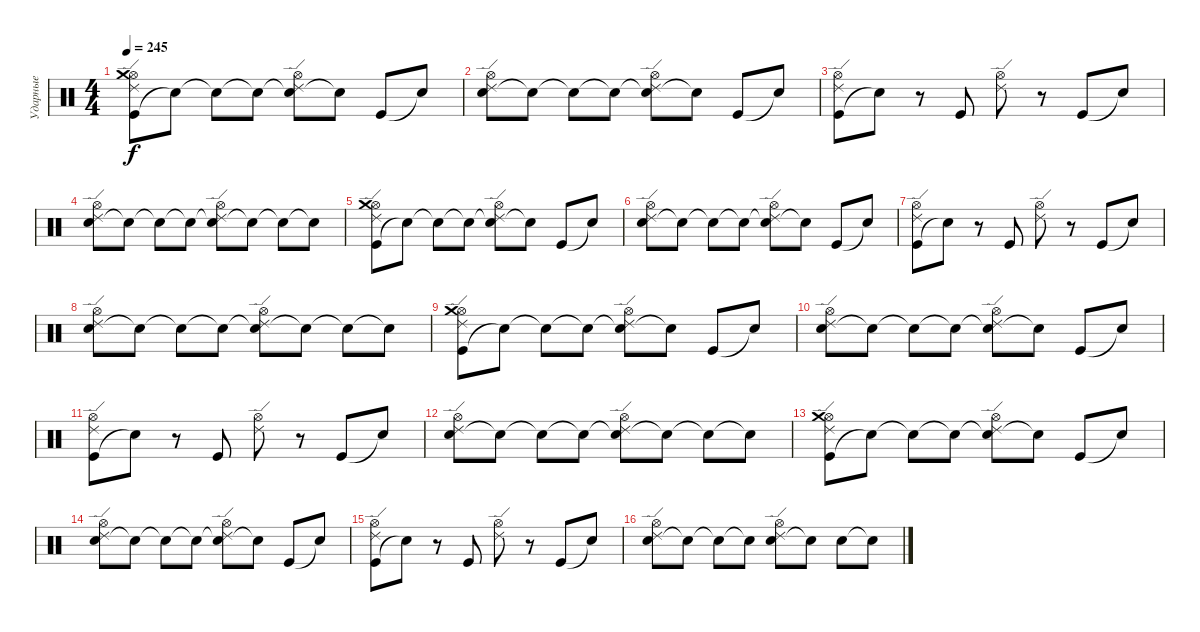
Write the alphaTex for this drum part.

\track ("Ударные" "Ударные") {instrument percussion}
\staff {score}
\articulation defaults
\ts (4 4)
\tempo 245
\clef neutral
\ks c
("Kick (hit)" "Ride (edge) 2" "Hi-Hat (open)" "Crash medium (hit)").8{dy f} "Snare (hit)"{t}.8 "Snare (hit)"{t}.8 "Snare (hit)"{t}.8 ("Snare (hit)"{t} "Ride (edge) 2" "Hi-Hat (open)").8 "Snare (hit)"{t}.8 "Kick (hit)".8 "Snare (hit)"{t}.8 |
("Electric Snare (hit)" "Ride (edge) 2" "Hi-Hat (open)").8 "Snare (hit)"{t}.8 "Snare (hit)"{t}.8 "Snare (hit)"{t}.8 ("Snare (hit)"{t} "Ride (edge) 2" "Hi-Hat (open)").8 "Snare (hit)"{t}.8 "Kick (hit)".8 "Snare (hit)"{t}.8 |
("Kick (hit)" "Ride (edge) 2" "Hi-Hat (open)").8 "Snare (hit)"{t}.8 r.8 "Kick (hit)".8 ("Ride (edge) 2" "Hi-Hat (open)").8 r.8 "Kick (hit)".8 "Snare (hit)"{t}.8 |
("Electric Snare (hit)" "Ride (edge) 2" "Hi-Hat (open)").8 "Snare (hit)"{t}.8 "Snare (hit)"{t}.8 "Snare (hit)"{t}.8 ("Snare (hit)"{t} "Ride (edge) 2" "Hi-Hat (open)").8 "Snare (hit)"{t}.8 "Snare (hit)"{t}.8 "Snare (hit)"{t}.8 |
("Kick (hit)" "Ride (edge) 2" "Hi-Hat (open)" "Crash medium (hit)").8 "Snare (hit)"{t}.8 "Snare (hit)"{t}.8 "Snare (hit)"{t}.8 ("Snare (hit)"{t} "Ride (edge) 2" "Hi-Hat (open)").8 "Snare (hit)"{t}.8 "Kick (hit)".8 "Snare (hit)"{t}.8 |
("Electric Snare (hit)" "Ride (edge) 2" "Hi-Hat (open)").8 "Snare (hit)"{t}.8 "Snare (hit)"{t}.8 "Snare (hit)"{t}.8 ("Snare (hit)"{t} "Ride (edge) 2" "Hi-Hat (open)").8 "Snare (hit)"{t}.8 "Kick (hit)".8 "Snare (hit)"{t}.8 |
("Kick (hit)" "Ride (edge) 2" "Hi-Hat (open)").8 "Snare (hit)"{t}.8 r.8 "Kick (hit)".8 ("Ride (edge) 2" "Hi-Hat (open)").8 r.8 "Kick (hit)".8 "Snare (hit)"{t}.8 |
("Electric Snare (hit)" "Ride (edge) 2" "Hi-Hat (open)").8 "Snare (hit)"{t}.8 "Snare (hit)"{t}.8 "Snare (hit)"{t}.8 ("Snare (hit)"{t} "Ride (edge) 2" "Hi-Hat (open)").8 "Snare (hit)"{t}.8 "Snare (hit)"{t}.8 "Snare (hit)"{t}.8 |
("Kick (hit)" "Ride (edge) 2" "Hi-Hat (open)" "Crash medium (hit)").8 "Snare (hit)"{t}.8 "Snare (hit)"{t}.8 "Snare (hit)"{t}.8 ("Snare (hit)"{t} "Ride (edge) 2" "Hi-Hat (open)").8 "Snare (hit)"{t}.8 "Kick (hit)".8 "Snare (hit)"{t}.8 |
("Electric Snare (hit)" "Ride (edge) 2" "Hi-Hat (open)").8 "Snare (hit)"{t}.8 "Snare (hit)"{t}.8 "Snare (hit)"{t}.8 ("Snare (hit)"{t} "Ride (edge) 2" "Hi-Hat (open)").8 "Snare (hit)"{t}.8 "Kick (hit)".8 "Snare (hit)"{t}.8 |
("Kick (hit)" "Ride (edge) 2" "Hi-Hat (open)").8 "Snare (hit)"{t}.8 r.8 "Kick (hit)".8 ("Ride (edge) 2" "Hi-Hat (open)").8 r.8 "Kick (hit)".8 "Snare (hit)"{t}.8 |
("Electric Snare (hit)" "Ride (edge) 2" "Hi-Hat (open)").8 "Snare (hit)"{t}.8 "Snare (hit)"{t}.8 "Snare (hit)"{t}.8 ("Snare (hit)"{t} "Ride (edge) 2" "Hi-Hat (open)").8 "Snare (hit)"{t}.8 "Snare (hit)"{t}.8 "Snare (hit)"{t}.8 |
("Kick (hit)" "Ride (edge) 2" "Hi-Hat (open)" "Crash medium (hit)").8 "Snare (hit)"{t}.8 "Snare (hit)"{t}.8 "Snare (hit)"{t}.8 ("Snare (hit)"{t} "Ride (edge) 2" "Hi-Hat (open)").8 "Snare (hit)"{t}.8 "Kick (hit)".8 "Snare (hit)"{t}.8 |
("Electric Snare (hit)" "Ride (edge) 2" "Hi-Hat (open)").8 "Snare (hit)"{t}.8 "Snare (hit)"{t}.8 "Snare (hit)"{t}.8 ("Snare (hit)"{t} "Ride (edge) 2" "Hi-Hat (open)").8 "Snare (hit)"{t}.8 "Kick (hit)".8 "Snare (hit)"{t}.8 |
("Kick (hit)" "Ride (edge) 2" "Hi-Hat (open)").8 "Snare (hit)"{t}.8 r.8 "Kick (hit)".8 ("Ride (edge) 2" "Hi-Hat (open)").8 r.8 "Kick (hit)".8 "Snare (hit)"{t}.8 |
("Electric Snare (hit)" "Ride (edge) 2" "Hi-Hat (open)").8 "Snare (hit)"{t}.8 "Snare (hit)"{t}.8 "Snare (hit)"{t}.8 ("Electric Snare (hit)" "Ride (edge) 2" "Hi-Hat (open)").8 "Snare (hit)"{t}.8 "Electric Snare (hit)".8 "Snare (hit)"{t}.8
